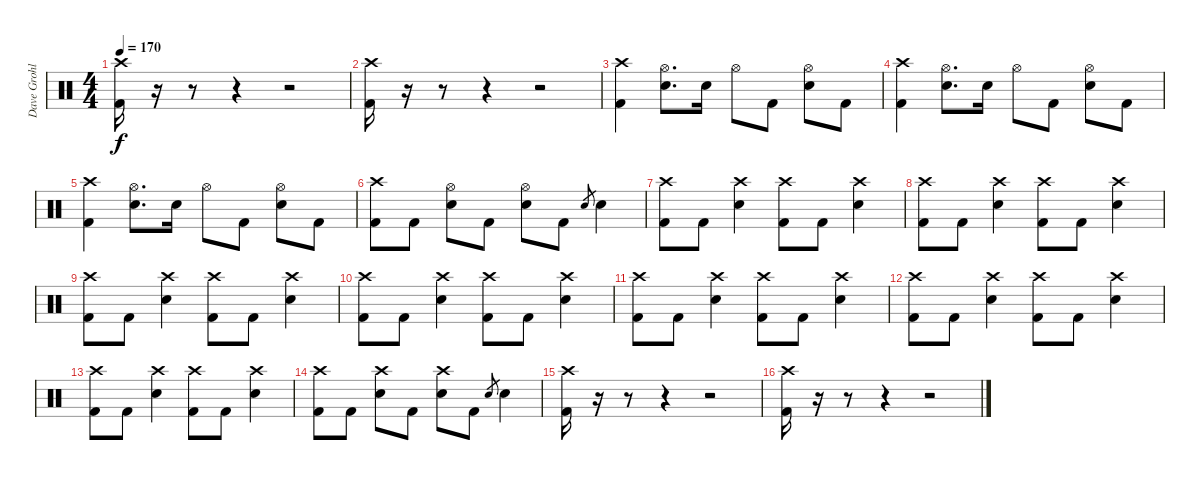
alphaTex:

\track ("Dave Grohl" "Dave Grohl") {instrument percussion}
\staff {score}
\articulation defaults
\ts (4 4)
\tempo 170
\clef neutral
\ks c
("Crash high (hit)" "Kick (hit) 2").16{dy f} r.16 r.8 r.4 r.2 |
("Crash high (hit)" "Kick (hit) 2").16 r.16 r.8 r.4 r.2 |
("Crash high (hit)" "Kick (hit) 2").4 ("Hi-Hat (open)" "Snare (hit) 2").8{d} "Snare (hit) 2".16 "Hi-Hat (open)".8 "Kick (hit) 2".8 ("Hi-Hat (open)" "Snare (hit) 2").8 "Kick (hit) 2".8 |
("Crash high (hit)" "Kick (hit) 2").4 ("Hi-Hat (open)" "Snare (hit) 2").8{d} "Snare (hit) 2".16 "Hi-Hat (open)".8 "Kick (hit) 2".8 ("Hi-Hat (open)" "Snare (hit) 2").8 "Kick (hit) 2".8 |
("Crash high (hit)" "Kick (hit) 2").4 ("Hi-Hat (open)" "Snare (hit) 2").8{d} "Snare (hit) 2".16 "Hi-Hat (open)".8 "Kick (hit) 2".8 ("Hi-Hat (open)" "Snare (hit) 2").8 "Kick (hit) 2".8 |
("Crash high (hit)" "Kick (hit) 2").8 "Kick (hit) 2".8 ("Hi-Hat (open)" "Snare (hit) 2").8 "Kick (hit) 2".8 ("Hi-Hat (open)" "Snare (hit) 2").8 "Kick (hit) 2".8 "Snare (hit) 2".8{gr} "Snare (hit) 2".4 |
("Crash high (hit)" "Kick (hit) 2").8 "Kick (hit) 2".8 ("Crash high (hit)" "Snare (hit) 2").4 ("Crash high (hit)" "Kick (hit) 2").8 "Kick (hit) 2".8 ("Crash high (hit)" "Snare (hit) 2").4 |
("Crash high (hit)" "Kick (hit) 2").8 "Kick (hit) 2".8 ("Crash high (hit)" "Snare (hit) 2").4 ("Crash high (hit)" "Kick (hit) 2").8 "Kick (hit) 2".8 ("Crash high (hit)" "Snare (hit) 2").4 |
("Crash high (hit)" "Kick (hit) 2").8 "Kick (hit) 2".8 ("Crash high (hit)" "Snare (hit) 2").4 ("Crash high (hit)" "Kick (hit) 2").8 "Kick (hit) 2".8 ("Crash high (hit)" "Snare (hit) 2").4 |
("Crash high (hit)" "Kick (hit) 2").8 "Kick (hit) 2".8 ("Crash high (hit)" "Snare (hit) 2").4 ("Crash high (hit)" "Kick (hit) 2").8 "Kick (hit) 2".8 ("Crash high (hit)" "Snare (hit) 2").4 |
("Crash high (hit)" "Kick (hit) 2").8 "Kick (hit) 2".8 ("Crash high (hit)" "Snare (hit) 2").4 ("Crash high (hit)" "Kick (hit) 2").8 "Kick (hit) 2".8 ("Crash high (hit)" "Snare (hit) 2").4 |
("Crash high (hit)" "Kick (hit) 2").8 "Kick (hit) 2".8 ("Crash high (hit)" "Snare (hit) 2").4 ("Crash high (hit)" "Kick (hit) 2").8 "Kick (hit) 2".8 ("Crash high (hit)" "Snare (hit) 2").4 |
("Crash high (hit)" "Kick (hit) 2").8 "Kick (hit) 2".8 ("Crash high (hit)" "Snare (hit) 2").4 ("Crash high (hit)" "Kick (hit) 2").8 "Kick (hit) 2".8 ("Crash high (hit)" "Snare (hit) 2").4 |
("Crash high (hit)" "Kick (hit) 2").8 "Kick (hit) 2".8 ("Crash high (hit)" "Snare (hit) 2").8 "Kick (hit) 2".8 ("Crash high (hit)" "Snare (hit) 2").8 "Kick (hit) 2".8 "Snare (hit) 2".8{gr} "Snare (hit) 2".4 |
("Crash high (hit)" "Kick (hit) 2").16 r.16 r.8 r.4 r.2 |
("Crash high (hit)" "Kick (hit) 2").16 r.16 r.8 r.4 r.2
